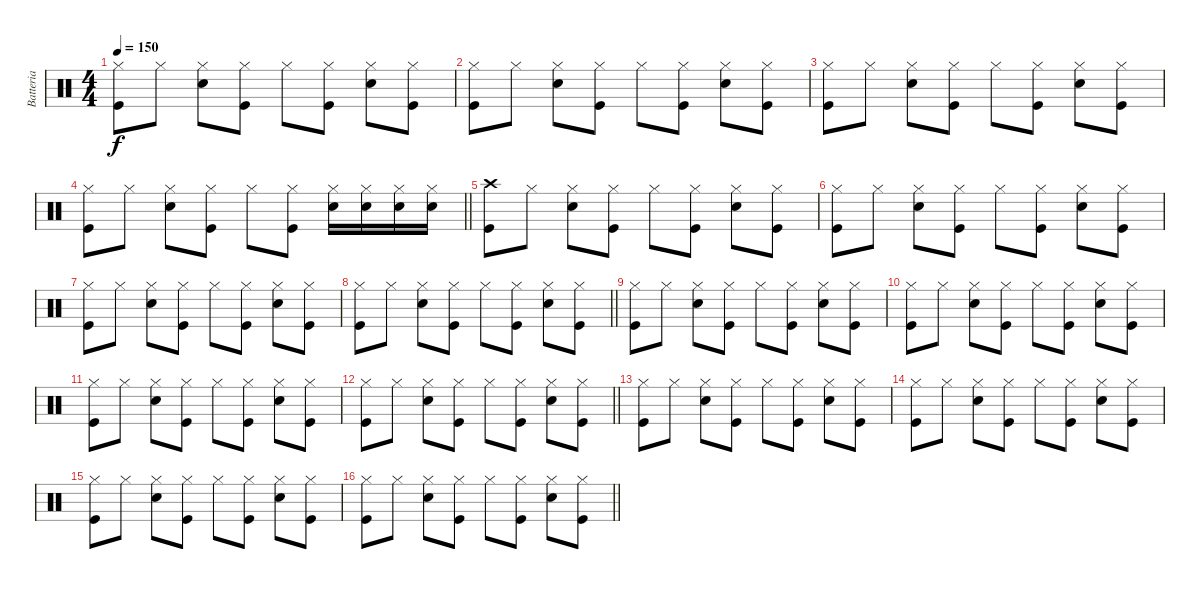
\track ("Batteria" "Batteria") {instrument percussion}
\staff {score}
\articulation defaults
\ts (4 4)
\tempo 150
\clef neutral
\ks c
("Kick (hit)" "Hi-Hat (closed)").8{dy f} "Hi-Hat (closed)".8 ("Snare (hit) 2" "Hi-Hat (closed)").8 ("Kick (hit)" "Hi-Hat (closed)").8 "Hi-Hat (closed)".8 ("Kick (hit)" "Hi-Hat (closed)").8 ("Snare (hit) 2" "Hi-Hat (closed)").8 ("Kick (hit)" "Hi-Hat (closed)").8 |
("Kick (hit)" "Hi-Hat (closed)").8 "Hi-Hat (closed)".8 ("Snare (hit) 2" "Hi-Hat (closed)").8 ("Kick (hit)" "Hi-Hat (closed)").8 "Hi-Hat (closed)".8 ("Kick (hit)" "Hi-Hat (closed)").8 ("Snare (hit) 2" "Hi-Hat (closed)").8 ("Kick (hit)" "Hi-Hat (closed)").8 |
("Kick (hit)" "Hi-Hat (closed)").8 "Hi-Hat (closed)".8 ("Snare (hit) 2" "Hi-Hat (closed)").8 ("Kick (hit)" "Hi-Hat (closed)").8 "Hi-Hat (closed)".8 ("Kick (hit)" "Hi-Hat (closed)").8 ("Snare (hit) 2" "Hi-Hat (closed)").8 ("Kick (hit)" "Hi-Hat (closed)").8 |
\barLineRight lightlight
("Kick (hit)" "Hi-Hat (closed)").8 "Hi-Hat (closed)".8 ("Snare (hit) 2" "Hi-Hat (closed)").8 ("Kick (hit)" "Hi-Hat (closed)").8 "Hi-Hat (closed)".8 ("Kick (hit)" "Hi-Hat (closed)").8 ("Snare (hit) 2" "Hi-Hat (closed)").16 ("Snare (hit) 2" "Hi-Hat (closed)").16 ("Snare (hit) 2" "Hi-Hat (closed)").16 ("Snare (hit) 2" "Hi-Hat (closed)").16 |
("Kick (hit)" "Crash high (hit)").8 "Hi-Hat (closed)".8 ("Snare (hit) 2" "Hi-Hat (closed)").8 ("Kick (hit)" "Hi-Hat (closed)").8 "Hi-Hat (closed)".8 ("Kick (hit)" "Hi-Hat (closed)").8 ("Snare (hit) 2" "Hi-Hat (closed)").8 ("Kick (hit)" "Hi-Hat (closed)").8 |
("Kick (hit)" "Hi-Hat (closed)").8 "Hi-Hat (closed)".8 ("Snare (hit) 2" "Hi-Hat (closed)").8 ("Kick (hit)" "Hi-Hat (closed)").8 "Hi-Hat (closed)".8 ("Kick (hit)" "Hi-Hat (closed)").8 ("Snare (hit) 2" "Hi-Hat (closed)").8 ("Kick (hit)" "Hi-Hat (closed)").8 |
("Kick (hit)" "Hi-Hat (closed)").8 "Hi-Hat (closed)".8 ("Snare (hit) 2" "Hi-Hat (closed)").8 ("Kick (hit)" "Hi-Hat (closed)").8 "Hi-Hat (closed)".8 ("Kick (hit)" "Hi-Hat (closed)").8 ("Snare (hit) 2" "Hi-Hat (closed)").8 ("Kick (hit)" "Hi-Hat (closed)").8 |
\barLineRight lightlight
("Kick (hit)" "Hi-Hat (closed)").8 "Hi-Hat (closed)".8 ("Snare (hit) 2" "Hi-Hat (closed)").8 ("Kick (hit)" "Hi-Hat (closed)").8 "Hi-Hat (closed)".8 ("Kick (hit)" "Hi-Hat (closed)").8 ("Snare (hit) 2" "Hi-Hat (closed)").8 ("Kick (hit)" "Hi-Hat (closed)").8 |
("Kick (hit)" "Hi-Hat (closed)").8 "Hi-Hat (closed)".8 ("Snare (hit) 2" "Hi-Hat (closed)").8 ("Kick (hit)" "Hi-Hat (closed)").8 "Hi-Hat (closed)".8 ("Kick (hit)" "Hi-Hat (closed)").8 ("Snare (hit) 2" "Hi-Hat (closed)").8 ("Kick (hit)" "Hi-Hat (closed)").8 |
("Kick (hit)" "Hi-Hat (closed)").8 "Hi-Hat (closed)".8 ("Snare (hit) 2" "Hi-Hat (closed)").8 ("Kick (hit)" "Hi-Hat (closed)").8 "Hi-Hat (closed)".8 ("Kick (hit)" "Hi-Hat (closed)").8 ("Snare (hit) 2" "Hi-Hat (closed)").8 ("Kick (hit)" "Hi-Hat (closed)").8 |
("Kick (hit)" "Hi-Hat (closed)").8 "Hi-Hat (closed)".8 ("Snare (hit) 2" "Hi-Hat (closed)").8 ("Kick (hit)" "Hi-Hat (closed)").8 "Hi-Hat (closed)".8 ("Kick (hit)" "Hi-Hat (closed)").8 ("Snare (hit) 2" "Hi-Hat (closed)").8 ("Kick (hit)" "Hi-Hat (closed)").8 |
\barLineRight lightlight
("Kick (hit)" "Hi-Hat (closed)").8 "Hi-Hat (closed)".8 ("Snare (hit) 2" "Hi-Hat (closed)").8 ("Kick (hit)" "Hi-Hat (closed)").8 "Hi-Hat (closed)".8 ("Kick (hit)" "Hi-Hat (closed)").8 ("Snare (hit) 2" "Hi-Hat (closed)").8 ("Kick (hit)" "Hi-Hat (closed)").8 |
("Kick (hit)" "Hi-Hat (closed)").8 "Hi-Hat (closed)".8 ("Snare (hit) 2" "Hi-Hat (closed)").8 ("Kick (hit)" "Hi-Hat (closed)").8 "Hi-Hat (closed)".8 ("Kick (hit)" "Hi-Hat (closed)").8 ("Snare (hit) 2" "Hi-Hat (closed)").8 ("Kick (hit)" "Hi-Hat (closed)").8 |
("Kick (hit)" "Hi-Hat (closed)").8 "Hi-Hat (closed)".8 ("Snare (hit) 2" "Hi-Hat (closed)").8 ("Kick (hit)" "Hi-Hat (closed)").8 "Hi-Hat (closed)".8 ("Kick (hit)" "Hi-Hat (closed)").8 ("Snare (hit) 2" "Hi-Hat (closed)").8 ("Kick (hit)" "Hi-Hat (closed)").8 |
("Kick (hit)" "Hi-Hat (closed)").8 "Hi-Hat (closed)".8 ("Snare (hit) 2" "Hi-Hat (closed)").8 ("Kick (hit)" "Hi-Hat (closed)").8 "Hi-Hat (closed)".8 ("Kick (hit)" "Hi-Hat (closed)").8 ("Snare (hit) 2" "Hi-Hat (closed)").8 ("Kick (hit)" "Hi-Hat (closed)").8 |
\barLineRight lightlight
("Kick (hit)" "Hi-Hat (closed)").8 "Hi-Hat (closed)".8 ("Snare (hit) 2" "Hi-Hat (closed)").8 ("Kick (hit)" "Hi-Hat (closed)").8 "Hi-Hat (closed)".8 ("Kick (hit)" "Hi-Hat (closed)").8 ("Snare (hit) 2" "Hi-Hat (closed)").8 ("Kick (hit)" "Hi-Hat (closed)").8
